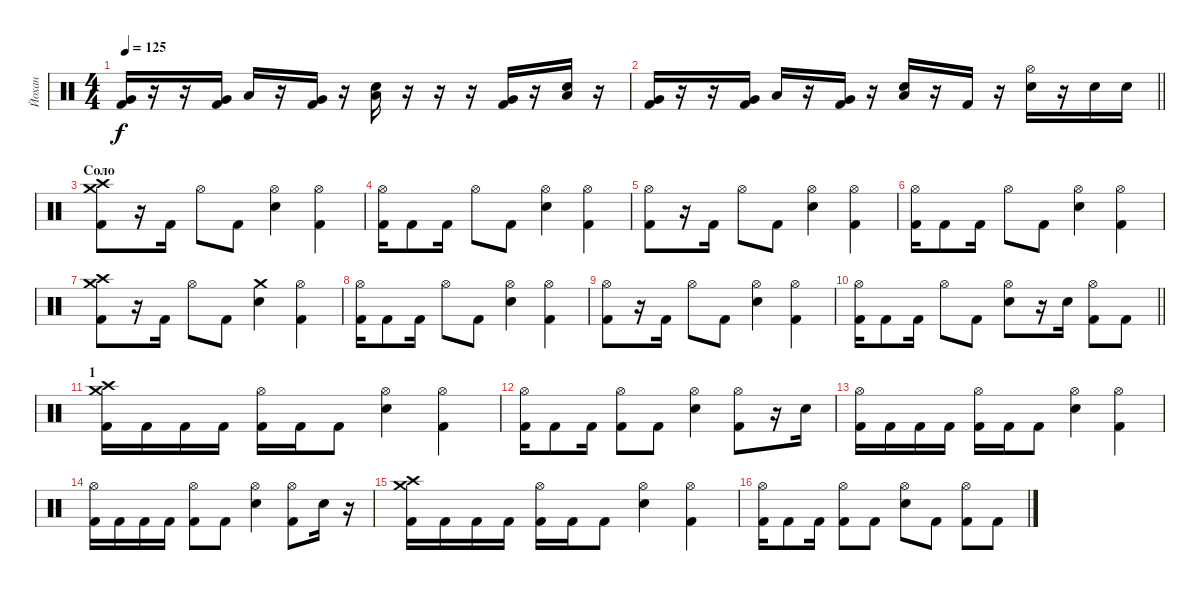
\track ("Йохан" "Йохан") {instrument percussion}
\staff {score}
\articulation defaults
\ts (4 4)
\tempo 125
\clef neutral
\ks c
("Very Low Tom (hit)" "Kick (hit) 2").16{dy f} r.16 r.16 ("Very Low Tom (hit)" "Kick (hit) 2").16 "Low Tom (hit)".16 r.16 ("Very Low Tom (hit)" "Kick (hit) 2").16 r.16 ("Low Tom (hit)" "Snare (hit) 2").16 r.16 r.16 r.16 ("Very Low Tom (hit)" "Kick (hit) 2").16 r.16 ("Low Tom (hit)" "Snare (hit) 2").16 r.16 |
\barLineRight lightlight
("Very Low Tom (hit)" "Kick (hit) 2").16 r.16 r.16 ("Very Low Tom (hit)" "Kick (hit) 2").16 "Low Tom (hit)".16 r.16 ("Very Low Tom (hit)" "Kick (hit) 2").16 r.16 ("Low Tom (hit)" "Snare (hit) 2").16 r.16 "Kick (hit) 2".16 r.16 ("Hi-Hat (open)" "Snare (hit) 2").16 r.16 "Snare (hit) 2".16 "Snare (hit) 2".16 |
\section ("" "Соло")
("Crash medium (hit)" "Crash high (hit)" "Kick (hit) 2").8 r.16 "Kick (hit) 2".16 "Hi-Hat (open)".8 "Kick (hit) 2".8 ("Hi-Hat (open)" "Snare (hit) 2").4 ("Hi-Hat (open)" "Kick (hit) 2").4 |
("Hi-Hat (open)" "Kick (hit) 2").16 "Kick (hit) 2".8 "Kick (hit) 2".16 "Hi-Hat (open)".8 "Kick (hit) 2".8 ("Hi-Hat (open)" "Snare (hit) 2").4 ("Hi-Hat (open)" "Kick (hit) 2").4 |
("Hi-Hat (open)" "Kick (hit) 2").8 r.16 "Kick (hit) 2".16 "Hi-Hat (open)".8 "Kick (hit) 2".8 ("Hi-Hat (open)" "Snare (hit) 2").4 ("Hi-Hat (open)" "Kick (hit) 2").4 |
("Hi-Hat (open)" "Kick (hit) 2").16 "Kick (hit) 2".8 "Kick (hit) 2".16 "Hi-Hat (open)".8 "Kick (hit) 2".8 ("Hi-Hat (open)" "Snare (hit) 2").4 ("Hi-Hat (open)" "Kick (hit) 2").4 |
("Crash medium (hit)" "Crash high (hit)" "Kick (hit) 2").8 r.16 "Kick (hit) 2".16 "Hi-Hat (open)".8 "Kick (hit) 2".8 ("Crash medium (hit)" "Snare (hit) 2").4 ("Hi-Hat (open)" "Kick (hit) 2").4 |
("Hi-Hat (open)" "Kick (hit) 2").16 "Kick (hit) 2".8 "Kick (hit) 2".16 "Hi-Hat (open)".8 "Kick (hit) 2".8 ("Hi-Hat (open)" "Snare (hit) 2").4 ("Hi-Hat (open)" "Kick (hit) 2").4 |
("Hi-Hat (open)" "Kick (hit) 2").8 r.16 "Kick (hit) 2".16 "Hi-Hat (open)".8 "Kick (hit) 2".8 ("Hi-Hat (open)" "Snare (hit) 2").4 ("Hi-Hat (open)" "Kick (hit) 2").4 |
\barLineRight lightlight
("Hi-Hat (open)" "Kick (hit) 2").16 "Kick (hit) 2".8 "Kick (hit) 2".16 "Hi-Hat (open)".8 "Kick (hit) 2".8 ("Hi-Hat (open)" "Snare (hit) 2").8 r.16 "Snare (hit) 2".16 ("Hi-Hat (open)" "Kick (hit) 2").8 "Kick (hit) 2".8 |
\section ("" "1")
("Crash medium (hit)" "Crash high (hit)" "Kick (hit) 2").16 "Kick (hit) 2".16 "Kick (hit) 2".16 "Kick (hit) 2".16 ("Hi-Hat (open)" "Kick (hit) 2").16 "Kick (hit) 2".16 "Kick (hit) 2".8 ("Hi-Hat (open)" "Snare (hit) 2").4 ("Hi-Hat (open)" "Kick (hit) 2").4 |
("Hi-Hat (open)" "Kick (hit) 2").16 "Kick (hit) 2".8 "Kick (hit) 2".16 ("Hi-Hat (open)" "Kick (hit) 2").8 "Kick (hit) 2".8 ("Hi-Hat (open)" "Snare (hit) 2").4 ("Hi-Hat (open)" "Kick (hit) 2").8 r.16 "Snare (hit) 2".16 |
("Hi-Hat (open)" "Kick (hit) 2").16 "Kick (hit) 2".16 "Kick (hit) 2".16 "Kick (hit) 2".16 ("Hi-Hat (open)" "Kick (hit) 2").16 "Kick (hit) 2".16 "Kick (hit) 2".8 ("Hi-Hat (open)" "Snare (hit) 2").4 ("Hi-Hat (open)" "Kick (hit) 2").4 |
("Hi-Hat (open)" "Kick (hit) 2").16 "Kick (hit) 2".16 "Kick (hit) 2".16 "Kick (hit) 2".16 ("Hi-Hat (open)" "Kick (hit) 2").8 "Kick (hit) 2".8 ("Hi-Hat (open)" "Snare (hit) 2").4 ("Hi-Hat (open)" "Kick (hit) 2").8 "Snare (hit) 2".16 r.16 |
("Crash medium (hit)" "Crash high (hit)" "Kick (hit) 2").16 "Kick (hit) 2".16 "Kick (hit) 2".16 "Kick (hit) 2".16 ("Hi-Hat (open)" "Kick (hit) 2").16 "Kick (hit) 2".16 "Kick (hit) 2".8 ("Hi-Hat (open)" "Snare (hit) 2").4 ("Hi-Hat (open)" "Kick (hit) 2").4 |
("Hi-Hat (open)" "Kick (hit) 2").16 "Kick (hit) 2".8 "Kick (hit) 2".16 ("Hi-Hat (open)" "Kick (hit) 2").8 "Kick (hit) 2".8 ("Hi-Hat (open)" "Snare (hit) 2").8 "Kick (hit) 2".8 ("Hi-Hat (open)" "Kick (hit) 2").8 "Kick (hit) 2".8
